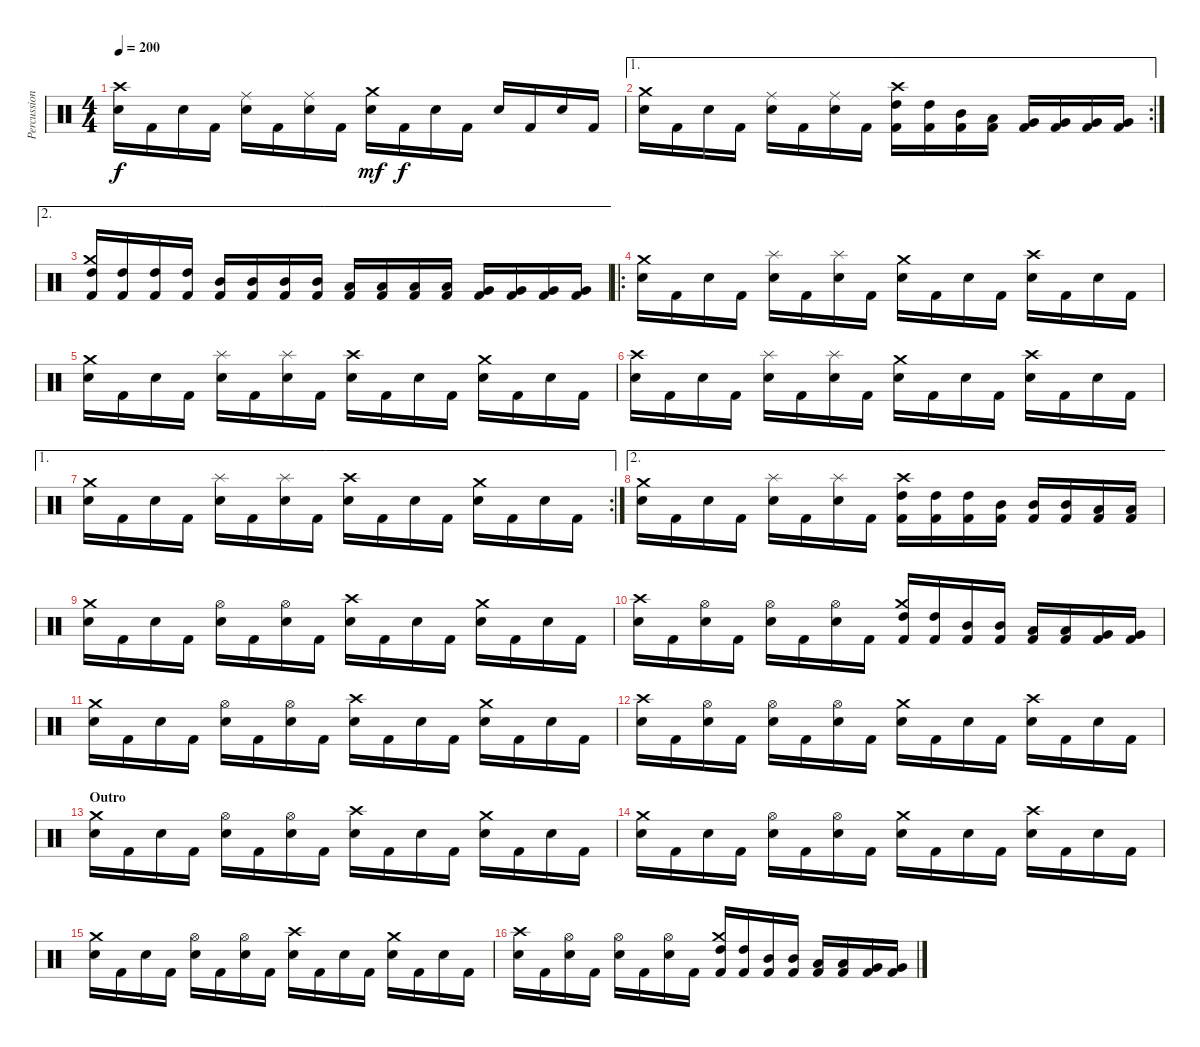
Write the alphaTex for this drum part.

\track ("Percussion" "Percussion") {instrument percussion}
\staff {score}
\articulation defaults
\ts (4 4)
\tempo 200
\clef neutral
\ks c
("Snare (hit) 2" "Crash high (hit)").16{dy f} "Kick (hit) 2".16 "Snare (hit) 2".16 "Kick (hit) 2".16 ("Snare (hit) 2" "Ride (middle)").16 "Kick (hit) 2".16 ("Snare (hit) 2" "Ride (middle)").16 "Kick (hit) 2".16 ("Snare (hit) 2" "Crash medium (hit)").16{dy mf} "Kick (hit) 2".16{dy f} "Snare (hit) 2".16 "Kick (hit) 2".16 "Snare (hit) 2".16 "Kick (hit) 2".16 "Snare (hit) 2".16 "Kick (hit) 2".16 |
\ae 1
\rc 2
("Snare (hit) 2" "Crash medium (hit)").16 "Kick (hit) 2".16 "Snare (hit) 2".16 "Kick (hit) 2".16 ("Snare (hit) 2" "Ride (middle)").16 "Kick (hit) 2".16 ("Snare (hit) 2" "Ride (middle)").16 "Kick (hit) 2".16 ("Kick (hit) 2" "High Tom (hit)" "Crash high (hit)").16 ("Kick (hit) 2" "High Tom (hit)").16 ("Kick (hit) 2" "Mid Tom (hit)").16 ("Kick (hit) 2" "Low Tom (hit)").16 ("Kick (hit) 2" "Very Low Tom (hit)").16 ("Kick (hit) 2" "Very Low Tom (hit)").16 ("Kick (hit) 2" "Very Low Tom (hit)").16 ("Kick (hit) 2" "Very Low Tom (hit)").16 |
\ae 2
("Kick (hit) 2" "High Tom (hit)" "Crash medium (hit)").16 ("Kick (hit) 2" "High Tom (hit)").16 ("Kick (hit) 2" "High Tom (hit)").16 ("Kick (hit) 2" "High Tom (hit)").16 ("Kick (hit) 2" "Mid Tom (hit)").16 ("Kick (hit) 2" "Mid Tom (hit)").16 ("Kick (hit) 2" "Mid Tom (hit)").16 ("Kick (hit) 2" "Mid Tom (hit)").16 ("Kick (hit) 2" "Low Tom (hit)").16 ("Kick (hit) 2" "Low Tom (hit)").16 ("Kick (hit) 2" "Low Tom (hit)").16 ("Kick (hit) 2" "Low Tom (hit)").16 ("Kick (hit) 2" "Very Low Tom (hit)").16 ("Kick (hit) 2" "Very Low Tom (hit)").16 ("Kick (hit) 2" "Very Low Tom (hit)").16 ("Kick (hit) 2" "Very Low Tom (hit)").16 |
\ro
("Snare (hit) 2" "Crash medium (hit)").16 "Kick (hit) 2".16 "Snare (hit) 2".16 "Kick (hit) 2".16 ("Snare (hit) 2" "Splash (hit)").16 "Kick (hit) 2".16 ("Snare (hit) 2" "Splash (hit)").16 "Kick (hit) 2".16 ("Snare (hit) 2" "Crash medium (hit)").16 "Kick (hit) 2".16 "Snare (hit) 2".16 "Kick (hit) 2".16 ("Snare (hit) 2" "Crash high (hit)").16 "Kick (hit) 2".16 "Snare (hit) 2".16 "Kick (hit) 2".16 |
("Snare (hit) 2" "Crash medium (hit)").16 "Kick (hit) 2".16 "Snare (hit) 2".16 "Kick (hit) 2".16 ("Snare (hit) 2" "Splash (hit)").16 "Kick (hit) 2".16 ("Snare (hit) 2" "Splash (hit)").16 "Kick (hit) 2".16 ("Snare (hit) 2" "Crash high (hit)").16 "Kick (hit) 2".16 "Snare (hit) 2".16 "Kick (hit) 2".16 ("Snare (hit) 2" "Crash medium (hit)").16 "Kick (hit) 2".16 "Snare (hit) 2".16 "Kick (hit) 2".16 |
("Snare (hit) 2" "Crash high (hit)").16 "Kick (hit) 2".16 "Snare (hit) 2".16 "Kick (hit) 2".16 ("Snare (hit) 2" "Splash (hit)").16 "Kick (hit) 2".16 ("Snare (hit) 2" "Splash (hit)").16 "Kick (hit) 2".16 ("Snare (hit) 2" "Crash medium (hit)").16 "Kick (hit) 2".16 "Snare (hit) 2".16 "Kick (hit) 2".16 ("Snare (hit) 2" "Crash high (hit)").16 "Kick (hit) 2".16 "Snare (hit) 2".16 "Kick (hit) 2".16 |
\ae 1
\rc 2
("Snare (hit) 2" "Crash medium (hit)").16 "Kick (hit) 2".16 "Snare (hit) 2".16 "Kick (hit) 2".16 ("Snare (hit) 2" "Splash (hit)").16 "Kick (hit) 2".16 ("Snare (hit) 2" "Splash (hit)").16 "Kick (hit) 2".16 ("Snare (hit) 2" "Crash high (hit)").16 "Kick (hit) 2".16 "Snare (hit) 2".16 "Kick (hit) 2".16 ("Snare (hit) 2" "Crash medium (hit)").16 "Kick (hit) 2".16 "Snare (hit) 2".16 "Kick (hit) 2".16 |
\ae 2
("Snare (hit) 2" "Crash medium (hit)").16 "Kick (hit) 2".16 "Snare (hit) 2".16 "Kick (hit) 2".16 ("Snare (hit) 2" "Splash (hit)").16 "Kick (hit) 2".16 ("Snare (hit) 2" "Splash (hit)").16 "Kick (hit) 2".16 ("Kick (hit) 2" "High Tom (hit)" "Crash high (hit)").16 ("Kick (hit) 2" "High Tom (hit)").16 ("Kick (hit) 2" "High Tom (hit)").16 ("Kick (hit) 2" "Mid Tom (hit)").16 ("Kick (hit) 2" "Mid Tom (hit)").16 ("Kick (hit) 2" "Mid Tom (hit)").16 ("Kick (hit) 2" "Low Tom (hit)").16 ("Kick (hit) 2" "Low Tom (hit)").16 |
("Snare (hit) 2" "Crash medium (hit)").16 "Kick (hit) 2".16 "Snare (hit) 2".16 "Kick (hit) 2".16 ("Snare (hit) 2" "Hi-Hat (open)").16 "Kick (hit) 2".16 ("Snare (hit) 2" "Hi-Hat (open)").16 "Kick (hit) 2".16 ("Snare (hit) 2" "Crash high (hit)").16 "Kick (hit) 2".16 "Snare (hit) 2".16 "Kick (hit) 2".16 ("Snare (hit) 2" "Crash medium (hit)").16 "Kick (hit) 2".16 "Snare (hit) 2".16 "Kick (hit) 2".16 |
("Snare (hit) 2" "Crash high (hit)").16 "Kick (hit) 2".16 ("Snare (hit) 2" "Hi-Hat (open)").16 "Kick (hit) 2".16 ("Snare (hit) 2" "Hi-Hat (open)").16 "Kick (hit) 2".16 ("Snare (hit) 2" "Hi-Hat (open)").16 "Kick (hit) 2".16 ("Kick (hit) 2" "High Tom (hit)" "Crash medium (hit)").16 ("Kick (hit) 2" "High Tom (hit)").16 ("Kick (hit) 2" "Mid Tom (hit)").16 ("Kick (hit) 2" "Mid Tom (hit)").16 ("Kick (hit) 2" "Low Tom (hit)").16 ("Kick (hit) 2" "Low Tom (hit)").16 ("Kick (hit) 2" "Very Low Tom (hit)").16 ("Kick (hit) 2" "Very Low Tom (hit)").16 |
("Snare (hit) 2" "Crash medium (hit)").16 "Kick (hit) 2".16 "Snare (hit) 2".16 "Kick (hit) 2".16 ("Snare (hit) 2" "Hi-Hat (open)").16 "Kick (hit) 2".16 ("Snare (hit) 2" "Hi-Hat (open)").16 "Kick (hit) 2".16 ("Snare (hit) 2" "Crash high (hit)").16 "Kick (hit) 2".16 "Snare (hit) 2".16 "Kick (hit) 2".16 ("Snare (hit) 2" "Crash medium (hit)").16 "Kick (hit) 2".16 "Snare (hit) 2".16 "Kick (hit) 2".16 |
("Snare (hit) 2" "Crash high (hit)").16 "Kick (hit) 2".16 ("Snare (hit) 2" "Hi-Hat (open)").16 "Kick (hit) 2".16 ("Snare (hit) 2" "Hi-Hat (open)").16 "Kick (hit) 2".16 ("Snare (hit) 2" "Hi-Hat (open)").16 "Kick (hit) 2".16 ("Snare (hit) 2" "Crash medium (hit)").16 "Kick (hit) 2".16 "Snare (hit) 2".16 "Kick (hit) 2".16 ("Snare (hit) 2" "Crash high (hit)").16 "Kick (hit) 2".16 "Snare (hit) 2".16 "Kick (hit) 2".16 |
\section ("" "Outro")
("Snare (hit) 2" "Crash medium (hit)").16 "Kick (hit) 2".16 "Snare (hit) 2".16 "Kick (hit) 2".16 ("Snare (hit) 2" "Hi-Hat (open)").16 "Kick (hit) 2".16 ("Snare (hit) 2" "Hi-Hat (open)").16 "Kick (hit) 2".16 ("Snare (hit) 2" "Crash high (hit)").16 "Kick (hit) 2".16 "Snare (hit) 2".16 "Kick (hit) 2".16 ("Snare (hit) 2" "Crash medium (hit)").16 "Kick (hit) 2".16 "Snare (hit) 2".16 "Kick (hit) 2".16 |
("Snare (hit) 2" "Crash medium (hit)").16 "Kick (hit) 2".16 "Snare (hit) 2".16 "Kick (hit) 2".16 ("Snare (hit) 2" "Hi-Hat (open)").16 "Kick (hit) 2".16 ("Snare (hit) 2" "Hi-Hat (open)").16 "Kick (hit) 2".16 ("Snare (hit) 2" "Crash medium (hit)").16 "Kick (hit) 2".16 "Snare (hit) 2".16 "Kick (hit) 2".16 ("Snare (hit) 2" "Crash high (hit)").16 "Kick (hit) 2".16 "Snare (hit) 2".16 "Kick (hit) 2".16 |
("Snare (hit) 2" "Crash medium (hit)").16 "Kick (hit) 2".16 "Snare (hit) 2".16 "Kick (hit) 2".16 ("Snare (hit) 2" "Hi-Hat (open)").16 "Kick (hit) 2".16 ("Snare (hit) 2" "Hi-Hat (open)").16 "Kick (hit) 2".16 ("Snare (hit) 2" "Crash high (hit)").16 "Kick (hit) 2".16 "Snare (hit) 2".16 "Kick (hit) 2".16 ("Snare (hit) 2" "Crash medium (hit)").16 "Kick (hit) 2".16 "Snare (hit) 2".16 "Kick (hit) 2".16 |
("Snare (hit) 2" "Crash high (hit)").16 "Kick (hit) 2".16 ("Snare (hit) 2" "Hi-Hat (open)").16 "Kick (hit) 2".16 ("Snare (hit) 2" "Hi-Hat (open)").16 "Kick (hit) 2".16 ("Snare (hit) 2" "Hi-Hat (open)").16 "Kick (hit) 2".16 ("Kick (hit) 2" "High Tom (hit)" "Crash medium (hit)").16 ("Kick (hit) 2" "High Tom (hit)").16 ("Kick (hit) 2" "Mid Tom (hit)").16 ("Kick (hit) 2" "Mid Tom (hit)").16 ("Kick (hit) 2" "Low Tom (hit)").16 ("Kick (hit) 2" "Low Tom (hit)").16 ("Kick (hit) 2" "Very Low Tom (hit)").16 ("Kick (hit) 2" "Very Low Tom (hit)").16
